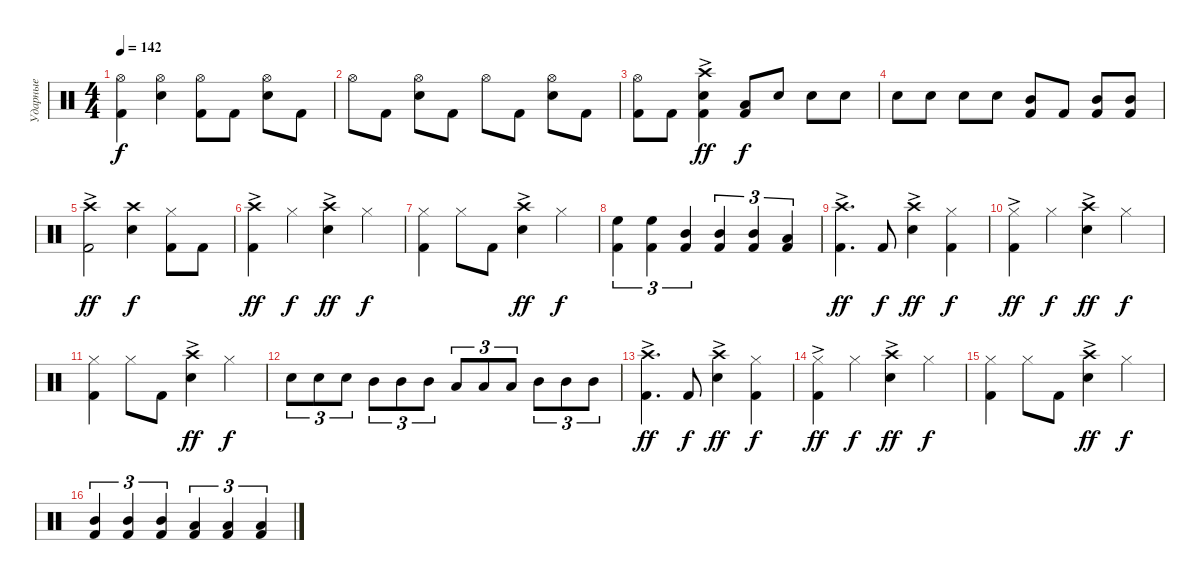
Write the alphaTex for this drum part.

\track ("Ударные" "Ударные") {instrument percussion}
\staff {score}
\articulation defaults
\ts (4 4)
\tempo 142
\clef neutral
\ks c
("Kick (hit) 2" "Hi-Hat (open)").4{dy f} ("Snare (hit) 2" "Hi-Hat (open)").4 ("Kick (hit) 2" "Hi-Hat (open)").8 "Kick (hit) 2".8 ("Snare (hit) 2" "Hi-Hat (open)").8 "Kick (hit) 2".8 |
"Hi-Hat (open)".8 "Kick (hit) 2".8 ("Snare (hit) 2" "Hi-Hat (open)").8 "Kick (hit) 2".8 "Hi-Hat (open)".8 "Kick (hit) 2".8 ("Snare (hit) 2" "Hi-Hat (open)").8 "Kick (hit) 2".8 |
("Kick (hit) 2" "Hi-Hat (open)").8 "Kick (hit) 2".8 ("Kick (hit) 2" "Snare (hit) 2" "Crash high (hit)"{ac}).4{dy ff} ("Kick (hit) 2" "Low Tom (hit)").8{dy f} "Electric Snare (hit)".8 "Electric Snare (hit)".8 "Electric Snare (hit)".8 |
"Snare (hit) 2".8 "Snare (hit) 2".8 "Snare (hit) 2".8 "Snare (hit) 2".8 ("Mid Tom (hit)" "Kick (hit) 2").8 "Kick (hit) 2".8 ("Mid Tom (hit)" "Kick (hit) 2").8 ("Mid Tom (hit)" "Kick (hit) 2").8 |
("Kick (hit) 2" "Crash high (hit)"{ac}).2{dy ff} ("Snare (hit) 2" "Crash high (hit)").4{dy f} ("Kick (hit) 2" "Hi-Hat (closed)").8 "Kick (hit) 2".8 |
("Kick (hit) 2" "Crash high (hit)"{ac}).4{dy ff} "Hi-Hat (closed)".4{dy f} ("Snare (hit) 2" "Crash high (hit)"{ac}).4{dy ff} "Hi-Hat (closed)".4{dy f} |
("Kick (hit) 2" "Hi-Hat (closed)").4 "Hi-Hat (closed)".8 "Kick (hit) 2".8 ("Snare (hit) 2" "Crash high (hit)"{ac}).4{dy ff} "Hi-Hat (closed)".4{dy f} |
("Kick (hit) 2" "High Floor Tom (hit)").4{tu (3 2)} ("Kick (hit) 2" "High Floor Tom (hit)").4{tu (3 2)} ("Kick (hit) 2" "Mid Tom (hit)").4{tu (3 2)} ("Kick (hit) 2" "Mid Tom (hit)").4{tu (3 2)} ("Kick (hit) 2" "Mid Tom (hit)").4{tu (3 2)} ("Kick (hit) 2" "Low Tom (hit)").4{tu (3 2)} |
("Kick (hit) 2" "Crash high (hit)"{ac}).4{d dy ff} "Kick (hit) 2".8{dy f} ("Snare (hit) 2" "Crash high (hit)"{ac}).4{dy ff} ("Kick (hit) 2" "Hi-Hat (closed)").4{dy f} |
("Kick (hit) 2" "Hi-Hat (closed)"{ac}).4{dy ff} "Hi-Hat (closed)".4{dy f} ("Snare (hit) 2" "Crash high (hit)"{ac}).4{dy ff} "Hi-Hat (closed)".4{dy f} |
("Kick (hit) 2" "Hi-Hat (closed)").4 "Hi-Hat (closed)".8 "Kick (hit) 2".8 ("Snare (hit) 2" "Crash high (hit)"{ac}).4{dy ff} "Hi-Hat (closed)".4{dy f} |
"Snare (hit) 2".8{tu (3 2)} "Snare (hit) 2".8{tu (3 2)} "Snare (hit) 2".8{tu (3 2)} "Mid Tom (hit)".8{tu (3 2)} "Mid Tom (hit)".8{tu (3 2)} "Mid Tom (hit)".8{tu (3 2)} "Low Tom (hit)".8{tu (3 2)} "Low Tom (hit)".8{tu (3 2)} "Low Tom (hit)".8{tu (3 2)} "Mid Tom (hit)".8{tu (3 2)} "Mid Tom (hit)".8{tu (3 2)} "Mid Tom (hit)".8{tu (3 2)} |
("Kick (hit) 2" "Crash high (hit)"{ac}).4{d dy ff} "Kick (hit) 2".8{dy f} ("Snare (hit) 2" "Crash high (hit)"{ac}).4{dy ff} ("Kick (hit) 2" "Hi-Hat (closed)").4{dy f} |
("Kick (hit) 2" "Hi-Hat (closed)"{ac}).4{dy ff} "Hi-Hat (closed)".4{dy f} ("Snare (hit) 2" "Crash high (hit)"{ac}).4{dy ff} "Hi-Hat (closed)".4{dy f} |
("Kick (hit) 2" "Hi-Hat (closed)").4 "Hi-Hat (closed)".8 "Kick (hit) 2".8 ("Snare (hit) 2" "Crash high (hit)"{ac}).4{dy ff} "Hi-Hat (closed)".4{dy f} |
("Mid Tom (hit)" "Kick (hit) 2").4{tu (3 2)} ("Mid Tom (hit)" "Kick (hit) 2").4{tu (3 2)} ("Mid Tom (hit)" "Kick (hit) 2").4{tu (3 2)} ("Low Tom (hit)" "Kick (hit) 2").4{tu (3 2)} ("Low Tom (hit)" "Kick (hit) 2").4{tu (3 2)} ("Low Tom (hit)" "Kick (hit) 2").4{tu (3 2)}
